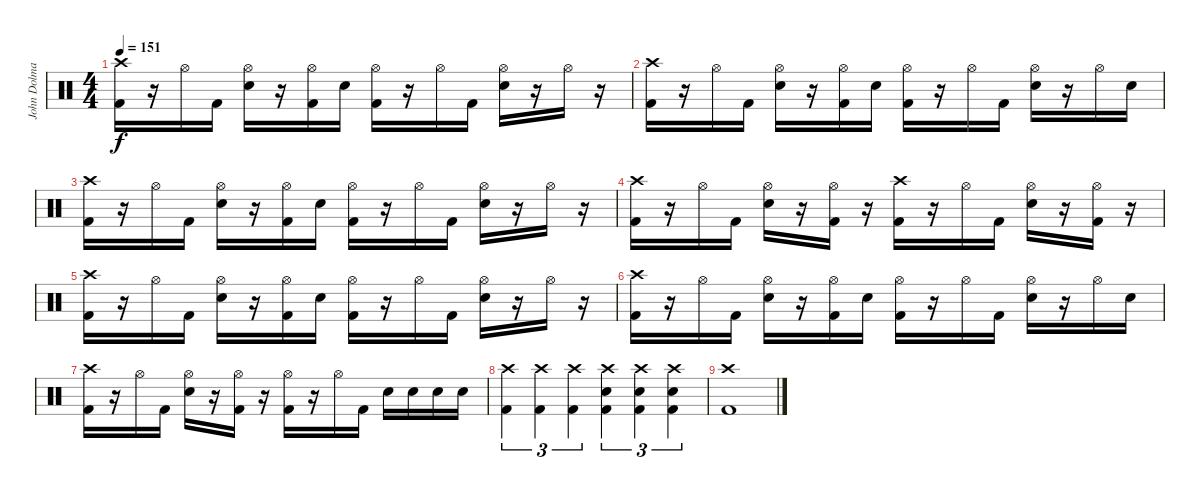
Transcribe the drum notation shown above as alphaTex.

\track ("John Dolmayan" "John Dolma") {instrument percussion}
\staff {score}
\articulation defaults
\ts (4 4)
\tempo 151
\clef neutral
\ks c
("Crash high (hit)" "Kick (hit) 2").16{dy f} r.16 "Hi-Hat (open)".16 "Kick (hit) 2".16 ("Hi-Hat (open)" "Snare (hit) 2").16 r.16 ("Hi-Hat (open)" "Kick (hit) 2").16 "Snare (hit) 2".16 ("Hi-Hat (open)" "Kick (hit) 2").16 r.16 "Hi-Hat (open)".16 "Kick (hit) 2".16 ("Hi-Hat (open)" "Snare (hit) 2").16 r.16 "Hi-Hat (open)".16 r.16 |
("Crash high (hit)" "Kick (hit) 2").16 r.16 "Hi-Hat (open)".16 "Kick (hit) 2".16 ("Hi-Hat (open)" "Snare (hit) 2").16 r.16 ("Hi-Hat (open)" "Kick (hit) 2").16 "Snare (hit) 2".16 ("Hi-Hat (open)" "Kick (hit) 2").16 r.16 "Hi-Hat (open)".16 "Kick (hit) 2".16 ("Hi-Hat (open)" "Snare (hit) 2").16 r.16 "Hi-Hat (open)".16 "Snare (hit) 2".16 |
("Crash high (hit)" "Kick (hit) 2").16 r.16 "Hi-Hat (open)".16 "Kick (hit) 2".16 ("Hi-Hat (open)" "Snare (hit) 2").16 r.16 ("Hi-Hat (open)" "Kick (hit) 2").16 "Snare (hit) 2".16 ("Hi-Hat (open)" "Kick (hit) 2").16 r.16 "Hi-Hat (open)".16 "Kick (hit) 2".16 ("Hi-Hat (open)" "Snare (hit) 2").16 r.16 "Hi-Hat (open)".16 r.16 |
("Crash high (hit)" "Kick (hit) 2").16 r.16 "Hi-Hat (open)".16 "Kick (hit) 2".16 ("Hi-Hat (open)" "Snare (hit) 2").16 r.16 ("Hi-Hat (open)" "Kick (hit) 2").16 r.16 ("Crash high (hit)" "Kick (hit) 2").16 r.16 "Hi-Hat (open)".16 "Kick (hit) 2".16 ("Hi-Hat (open)" "Snare (hit) 2").16 r.16 ("Hi-Hat (open)" "Kick (hit) 2").16 r.16 |
("Crash high (hit)" "Kick (hit) 2").16 r.16 "Hi-Hat (open)".16 "Kick (hit) 2".16 ("Hi-Hat (open)" "Snare (hit) 2").16 r.16 ("Hi-Hat (open)" "Kick (hit) 2").16 "Snare (hit) 2".16 ("Hi-Hat (open)" "Kick (hit) 2").16 r.16 "Hi-Hat (open)".16 "Kick (hit) 2".16 ("Hi-Hat (open)" "Snare (hit) 2").16 r.16 "Hi-Hat (open)".16 r.16 |
("Crash high (hit)" "Kick (hit) 2").16 r.16 "Hi-Hat (open)".16 "Kick (hit) 2".16 ("Hi-Hat (open)" "Snare (hit) 2").16 r.16 ("Hi-Hat (open)" "Kick (hit) 2").16 "Snare (hit) 2".16 ("Hi-Hat (open)" "Kick (hit) 2").16 r.16 "Hi-Hat (open)".16 "Kick (hit) 2".16 ("Hi-Hat (open)" "Snare (hit) 2").16 r.16 "Hi-Hat (open)".16 "Snare (hit) 2".16 |
("Crash high (hit)" "Kick (hit) 2").16 r.16 "Hi-Hat (open)".16 "Kick (hit) 2".16 ("Hi-Hat (open)" "Snare (hit) 2").16 r.16 ("Hi-Hat (open)" "Kick (hit) 2").16 r.16 ("Hi-Hat (open)" "Kick (hit) 2").16 r.16 "Hi-Hat (open)".16 "Kick (hit) 2".16 "Snare (hit) 2".16 "Snare (hit) 2".16 "Snare (hit) 2".16 "Snare (hit) 2".16 |
("Crash high (hit)" "Kick (hit) 2").4{tu (3 2)} ("Crash high (hit)" "Kick (hit) 2").4{tu (3 2)} ("Crash high (hit)" "Kick (hit) 2").4{tu (3 2)} ("Crash high (hit)" "Snare (hit) 2" "Kick (hit) 2").4{tu (3 2)} ("Crash high (hit)" "Snare (hit) 2" "Kick (hit) 2").4{tu (3 2)} ("Crash high (hit)" "Snare (hit) 2" "Kick (hit) 2").4{tu (3 2)} |
("Crash high (hit)" "Kick (hit) 2").1
